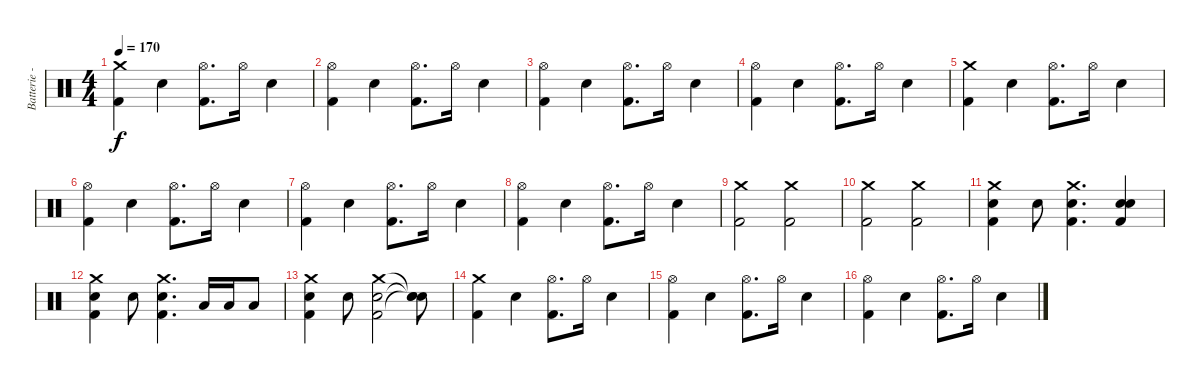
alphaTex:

\track ("Batterie - Anders Johansson" "Batterie -") {instrument percussion}
\staff {score}
\articulation defaults
\ts (4 4)
\tempo 170
\clef neutral
\ks c
("Crash medium (hit)" "Kick (hit) 2").4{dy f} "Electric Snare (hit)".4 ("Hi-Hat (open)" "Kick (hit) 2").8{d} "Hi-Hat (open)".16 "Electric Snare (hit)".4 |
("Hi-Hat (open)" "Kick (hit) 2").4 "Electric Snare (hit)".4 ("Hi-Hat (open)" "Kick (hit) 2").8{d} "Hi-Hat (open)".16 "Electric Snare (hit)".4 |
("Hi-Hat (open)" "Kick (hit) 2").4 "Electric Snare (hit)".4 ("Hi-Hat (open)" "Kick (hit) 2").8{d} "Hi-Hat (open)".16 "Electric Snare (hit)".4 |
("Hi-Hat (open)" "Kick (hit) 2").4 "Electric Snare (hit)".4 ("Hi-Hat (open)" "Kick (hit) 2").8{d} "Hi-Hat (open)".16 "Electric Snare (hit)".4 |
("Crash medium (hit)" "Kick (hit) 2").4 "Electric Snare (hit)".4 ("Hi-Hat (open)" "Kick (hit) 2").8{d} "Hi-Hat (open)".16 "Electric Snare (hit)".4 |
("Hi-Hat (open)" "Kick (hit) 2").4 "Electric Snare (hit)".4 ("Hi-Hat (open)" "Kick (hit) 2").8{d} "Hi-Hat (open)".16 "Electric Snare (hit)".4 |
("Hi-Hat (open)" "Kick (hit) 2").4 "Electric Snare (hit)".4 ("Hi-Hat (open)" "Kick (hit) 2").8{d} "Hi-Hat (open)".16 "Electric Snare (hit)".4 |
("Hi-Hat (open)" "Kick (hit) 2").4 "Electric Snare (hit)".4 ("Hi-Hat (open)" "Kick (hit) 2").8{d} "Hi-Hat (open)".16 "Electric Snare (hit)".4 |
("Crash medium (hit)" "Kick (hit) 2").2 ("Crash medium (hit)" "Kick (hit) 2").2 |
("Crash medium (hit)" "Kick (hit) 2").2 ("Crash medium (hit)" "Kick (hit) 2").2 |
("Crash medium (hit)" "Electric Snare (hit)" "Kick (hit) 2").4 "Electric Snare (hit)".8 ("Crash medium (hit)" "Electric Snare (hit)" "Kick (hit) 2").4{d} ("Electric Snare (hit)" "Electric Snare (hit)" "Kick (hit) 2").4 |
("Crash medium (hit)" "Electric Snare (hit)" "Kick (hit) 2").4 "Electric Snare (hit)".8 ("Crash medium (hit)" "Electric Snare (hit)" "Kick (hit) 2").4{d} "Low Tom (hit)".16 "Low Tom (hit)".16 "Low Tom (hit)".8 |
("Crash medium (hit)" "Electric Snare (hit)" "Kick (hit) 2").4 "Electric Snare (hit)".8 ("Crash medium (hit)" "Electric Snare (hit)" "Kick (hit) 2").2 ("Snare (hit)"{t} "Snare (hit)"{t} "Snare (hit)"{t}).8 |
("Crash medium (hit)" "Kick (hit) 2").4 "Electric Snare (hit)".4 ("Hi-Hat (open)" "Kick (hit) 2").8{d} "Hi-Hat (open)".16 "Electric Snare (hit)".4 |
("Hi-Hat (open)" "Kick (hit) 2").4 "Electric Snare (hit)".4 ("Hi-Hat (open)" "Kick (hit) 2").8{d} "Hi-Hat (open)".16 "Electric Snare (hit)".4 |
("Hi-Hat (open)" "Kick (hit) 2").4 "Electric Snare (hit)".4 ("Hi-Hat (open)" "Kick (hit) 2").8{d} "Hi-Hat (open)".16 "Electric Snare (hit)".4
